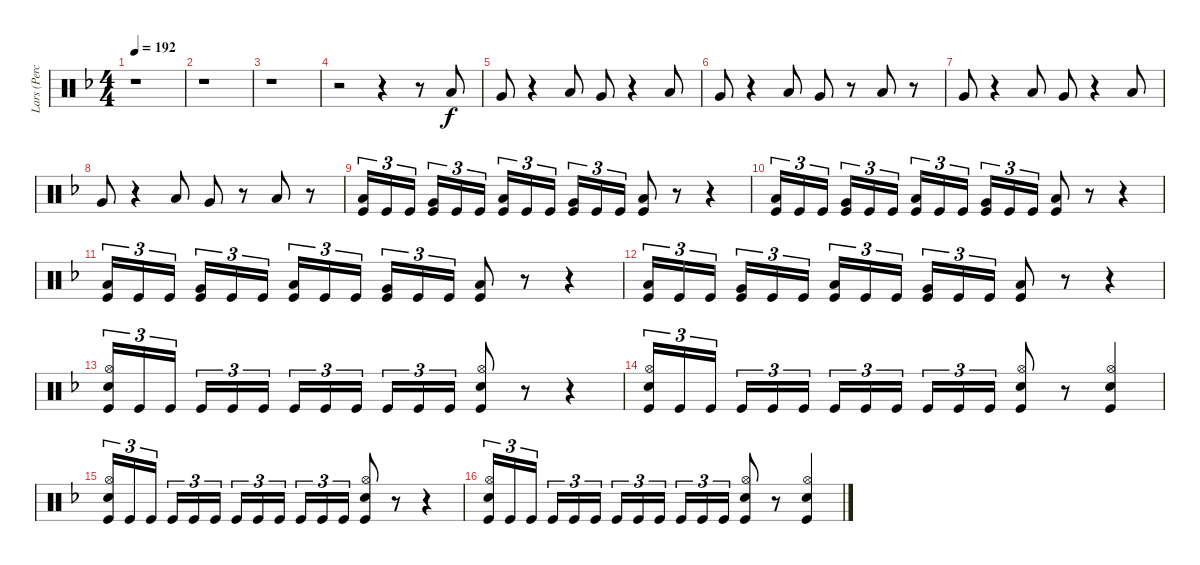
\track ("Lars (Percussion)" "Lars (Perc") {instrument percussion}
\staff {score}
\articulation defaults
\ts (4 4)
\tempo 192
\clef neutral
\ks f
r.1{dy f} |
r.1 |
r.1 |
r.2 r.4 r.8 "Low Floor Tom (hit)".8 |
"Very Low Tom (hit)".8 r.4 "Low Floor Tom (hit)".8 "Very Low Tom (hit)".8 r.4 "Low Floor Tom (hit)".8 |
"Very Low Tom (hit)".8 r.4 "Low Floor Tom (hit)".8 "Very Low Tom (hit)".8 r.8 "Low Floor Tom (hit)".8 r.8 |
"Very Low Tom (hit)".8 r.4 "Low Floor Tom (hit)".8 "Very Low Tom (hit)".8 r.4 "Low Floor Tom (hit)".8 |
"Very Low Tom (hit)".8 r.4 "Low Floor Tom (hit)".8 "Very Low Tom (hit)".8 r.8 "Low Floor Tom (hit)".8 r.8 |
("Low Floor Tom (hit)" "Kick (hit)").16{tu (3 2)} "Kick (hit)".16{tu (3 2)} "Kick (hit)".16{tu (3 2)} ("Very Low Tom (hit)" "Kick (hit)").16{tu (3 2)} "Kick (hit)".16{tu (3 2)} "Kick (hit)".16{tu (3 2)} ("Low Floor Tom (hit)" "Kick (hit)").16{tu (3 2)} "Kick (hit)".16{tu (3 2)} "Kick (hit)".16{tu (3 2)} ("Very Low Tom (hit)" "Kick (hit)").16{tu (3 2)} "Kick (hit)".16{tu (3 2)} "Kick (hit)".16{tu (3 2)} ("Low Floor Tom (hit)" "Kick (hit)").8 r.8 r.4 |
("Low Floor Tom (hit)" "Kick (hit)").16{tu (3 2)} "Kick (hit)".16{tu (3 2)} "Kick (hit)".16{tu (3 2)} ("Very Low Tom (hit)" "Kick (hit)").16{tu (3 2)} "Kick (hit)".16{tu (3 2)} "Kick (hit)".16{tu (3 2)} ("Low Floor Tom (hit)" "Kick (hit)").16{tu (3 2)} "Kick (hit)".16{tu (3 2)} "Kick (hit)".16{tu (3 2)} ("Very Low Tom (hit)" "Kick (hit)").16{tu (3 2)} "Kick (hit)".16{tu (3 2)} "Kick (hit)".16{tu (3 2)} ("Low Floor Tom (hit)" "Kick (hit)").8 r.8 r.4 |
("Low Floor Tom (hit)" "Kick (hit)").16{tu (3 2)} "Kick (hit)".16{tu (3 2)} "Kick (hit)".16{tu (3 2)} ("Very Low Tom (hit)" "Kick (hit)").16{tu (3 2)} "Kick (hit)".16{tu (3 2)} "Kick (hit)".16{tu (3 2)} ("Low Floor Tom (hit)" "Kick (hit)").16{tu (3 2)} "Kick (hit)".16{tu (3 2)} "Kick (hit)".16{tu (3 2)} ("Very Low Tom (hit)" "Kick (hit)").16{tu (3 2)} "Kick (hit)".16{tu (3 2)} "Kick (hit)".16{tu (3 2)} ("Low Floor Tom (hit)" "Kick (hit)").8 r.8 r.4 |
("Low Floor Tom (hit)" "Kick (hit)").16{tu (3 2)} "Kick (hit)".16{tu (3 2)} "Kick (hit)".16{tu (3 2)} ("Very Low Tom (hit)" "Kick (hit)").16{tu (3 2)} "Kick (hit)".16{tu (3 2)} "Kick (hit)".16{tu (3 2)} ("Low Floor Tom (hit)" "Kick (hit)").16{tu (3 2)} "Kick (hit)".16{tu (3 2)} "Kick (hit)".16{tu (3 2)} ("Very Low Tom (hit)" "Kick (hit)").16{tu (3 2)} "Kick (hit)".16{tu (3 2)} "Kick (hit)".16{tu (3 2)} ("Low Floor Tom (hit)" "Kick (hit)").8 r.8 r.4 |
("Hi-Hat (open)" "Snare (hit) 2" "Kick (hit)").16{tu (3 2)} "Kick (hit)".16{tu (3 2)} "Kick (hit)".16{tu (3 2)} "Kick (hit)".16{tu (3 2)} "Kick (hit)".16{tu (3 2)} "Kick (hit)".16{tu (3 2)} "Kick (hit)".16{tu (3 2)} "Kick (hit)".16{tu (3 2)} "Kick (hit)".16{tu (3 2)} "Kick (hit)".16{tu (3 2)} "Kick (hit)".16{tu (3 2)} "Kick (hit)".16{tu (3 2)} ("Hi-Hat (open)" "Snare (hit) 2" "Kick (hit)").8 r.8 r.4 |
("Hi-Hat (open)" "Snare (hit) 2" "Kick (hit)").16{tu (3 2)} "Kick (hit)".16{tu (3 2)} "Kick (hit)".16{tu (3 2)} "Kick (hit)".16{tu (3 2)} "Kick (hit)".16{tu (3 2)} "Kick (hit)".16{tu (3 2)} "Kick (hit)".16{tu (3 2)} "Kick (hit)".16{tu (3 2)} "Kick (hit)".16{tu (3 2)} "Kick (hit)".16{tu (3 2)} "Kick (hit)".16{tu (3 2)} "Kick (hit)".16{tu (3 2)} ("Hi-Hat (open)" "Snare (hit) 2" "Kick (hit)").8 r.8 ("Hi-Hat (open)" "Snare (hit) 2" "Kick (hit)").4 |
("Hi-Hat (open)" "Snare (hit) 2" "Kick (hit)").16{tu (3 2)} "Kick (hit)".16{tu (3 2)} "Kick (hit)".16{tu (3 2)} "Kick (hit)".16{tu (3 2)} "Kick (hit)".16{tu (3 2)} "Kick (hit)".16{tu (3 2)} "Kick (hit)".16{tu (3 2)} "Kick (hit)".16{tu (3 2)} "Kick (hit)".16{tu (3 2)} "Kick (hit)".16{tu (3 2)} "Kick (hit)".16{tu (3 2)} "Kick (hit)".16{tu (3 2)} ("Hi-Hat (open)" "Snare (hit) 2" "Kick (hit)").8 r.8 r.4 |
("Hi-Hat (open)" "Snare (hit) 2" "Kick (hit)").16{tu (3 2)} "Kick (hit)".16{tu (3 2)} "Kick (hit)".16{tu (3 2)} "Kick (hit)".16{tu (3 2)} "Kick (hit)".16{tu (3 2)} "Kick (hit)".16{tu (3 2)} "Kick (hit)".16{tu (3 2)} "Kick (hit)".16{tu (3 2)} "Kick (hit)".16{tu (3 2)} "Kick (hit)".16{tu (3 2)} "Kick (hit)".16{tu (3 2)} "Kick (hit)".16{tu (3 2)} ("Hi-Hat (open)" "Snare (hit) 2" "Kick (hit)").8 r.8 ("Hi-Hat (open)" "Snare (hit) 2" "Kick (hit)").4
